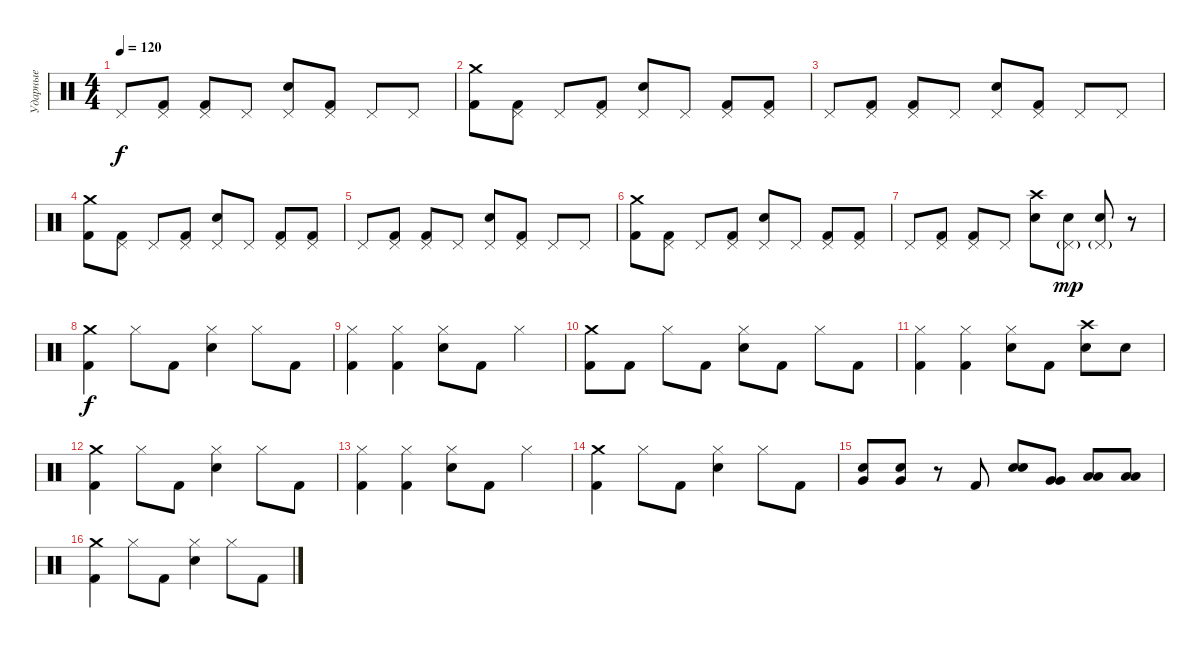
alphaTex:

\track ("Ударные" "Ударные") {instrument percussion}
\staff {score}
\articulation defaults
\ts (4 4)
\tempo 120
\clef neutral
\ks c "Pedal Hi-Hat (hit)".8{dy f}
("Pedal Hi-Hat (hit)" "Kick (hit) 2").8 ("Pedal Hi-Hat (hit)" "Kick (hit) 2").8 "Pedal Hi-Hat (hit)".8 ("Pedal Hi-Hat (hit)" "Snare (hit) 2").8 ("Pedal Hi-Hat (hit)" "Kick (hit) 2").8 "Pedal Hi-Hat (hit)".8 "Pedal Hi-Hat (hit)".8 |
("Crash medium (hit)" "Kick (hit) 2").8 ("Pedal Hi-Hat (hit)" "Kick (hit) 2").8 "Pedal Hi-Hat (hit)".8 ("Pedal Hi-Hat (hit)" "Kick (hit) 2").8 ("Pedal Hi-Hat (hit)" "Snare (hit) 2").8 "Pedal Hi-Hat (hit)".8 ("Pedal Hi-Hat (hit)" "Kick (hit) 2").8 ("Pedal Hi-Hat (hit)" "Kick (hit) 2").8 |
"Pedal Hi-Hat (hit)".8 ("Pedal Hi-Hat (hit)" "Kick (hit) 2").8 ("Pedal Hi-Hat (hit)" "Kick (hit) 2").8 "Pedal Hi-Hat (hit)".8 ("Pedal Hi-Hat (hit)" "Snare (hit) 2").8 ("Pedal Hi-Hat (hit)" "Kick (hit) 2").8 "Pedal Hi-Hat (hit)".8 "Pedal Hi-Hat (hit)".8 |
("Crash medium (hit)" "Kick (hit) 2").8 ("Pedal Hi-Hat (hit)" "Kick (hit) 2").8 "Pedal Hi-Hat (hit)".8 ("Pedal Hi-Hat (hit)" "Kick (hit) 2").8 ("Pedal Hi-Hat (hit)" "Snare (hit) 2").8 "Pedal Hi-Hat (hit)".8 ("Pedal Hi-Hat (hit)" "Kick (hit) 2").8 ("Pedal Hi-Hat (hit)" "Kick (hit) 2").8 |
"Pedal Hi-Hat (hit)".8 ("Pedal Hi-Hat (hit)" "Kick (hit) 2").8 ("Pedal Hi-Hat (hit)" "Kick (hit) 2").8 "Pedal Hi-Hat (hit)".8 ("Pedal Hi-Hat (hit)" "Snare (hit) 2").8 ("Pedal Hi-Hat (hit)" "Kick (hit) 2").8 "Pedal Hi-Hat (hit)".8 "Pedal Hi-Hat (hit)".8 |
("Crash medium (hit)" "Kick (hit) 2").8 ("Pedal Hi-Hat (hit)" "Kick (hit) 2").8 "Pedal Hi-Hat (hit)".8 ("Pedal Hi-Hat (hit)" "Kick (hit) 2").8 ("Pedal Hi-Hat (hit)" "Snare (hit) 2").8 "Pedal Hi-Hat (hit)".8 ("Pedal Hi-Hat (hit)" "Kick (hit) 2").8 ("Pedal Hi-Hat (hit)" "Kick (hit) 2").8 |
"Pedal Hi-Hat (hit)".8 ("Pedal Hi-Hat (hit)" "Kick (hit) 2").8 ("Pedal Hi-Hat (hit)" "Kick (hit) 2").8 "Pedal Hi-Hat (hit)".8 ("Crash high (hit)" "Snare (hit) 2").8 ("Pedal Hi-Hat (hit)"{g} "Snare (hit) 2").8{dy mp} ("Pedal Hi-Hat (hit)"{g} "Snare (hit) 2").8 r.8 |
("Crash medium (hit)" "Kick (hit) 2").4{dy f} "Hi-Hat (closed)".8 "Kick (hit) 2".8 ("Hi-Hat (closed)" "Snare (hit) 2").4 "Hi-Hat (closed)".8 "Kick (hit) 2".8 |
("Hi-Hat (closed)" "Kick (hit) 2").4 ("Hi-Hat (closed)" "Kick (hit) 2").4 ("Hi-Hat (closed)" "Snare (hit) 2").8 "Kick (hit) 2".8 "Hi-Hat (closed)".4 |
("Crash medium (hit)" "Kick (hit) 2").8 "Kick (hit) 2".8 "Hi-Hat (closed)".8 "Kick (hit) 2".8 ("Hi-Hat (closed)" "Snare (hit) 2").8 "Kick (hit) 2".8 "Hi-Hat (closed)".8 "Kick (hit) 2".8 |
("Hi-Hat (closed)" "Kick (hit) 2").4 ("Hi-Hat (closed)" "Kick (hit) 2").4 ("Hi-Hat (closed)" "Snare (hit) 2").8 "Kick (hit) 2".8 ("Crash high (hit)" "Snare (hit) 2").8 "Snare (hit) 2".8 |
("Crash medium (hit)" "Kick (hit) 2").4 "Hi-Hat (closed)".8 "Kick (hit) 2".8 ("Hi-Hat (closed)" "Snare (hit) 2").4 "Hi-Hat (closed)".8 "Kick (hit) 2".8 |
("Hi-Hat (closed)" "Kick (hit) 2").4 ("Hi-Hat (closed)" "Kick (hit) 2").4 ("Hi-Hat (closed)" "Snare (hit) 2").8 "Kick (hit) 2".8 "Hi-Hat (closed)".4 |
("Crash medium (hit)" "Kick (hit) 2").4 "Hi-Hat (closed)".8 "Kick (hit) 2".8 ("Hi-Hat (closed)" "Snare (hit) 2").4 "Hi-Hat (closed)".8 "Kick (hit) 2".8 |
("Snare (hit) 2" "Very Low Tom (hit)").8 ("Snare (hit) 2" "Very Low Tom (hit)").8 r.8 "Kick (hit) 2".8 ("Snare (hit) 2" "Snare (hit) 2").8 ("Very Low Tom (hit)" "Very Low Tom (hit)").8 ("Low Floor Tom (hit)" "Low Floor Tom (hit)").8 ("Low Floor Tom (hit)" "Low Floor Tom (hit)").8 |
("Crash medium (hit)" "Kick (hit) 2").4 "Hi-Hat (closed)".8 "Kick (hit) 2".8 ("Hi-Hat (closed)" "Snare (hit) 2").4 "Hi-Hat (closed)".8 "Kick (hit) 2".8
